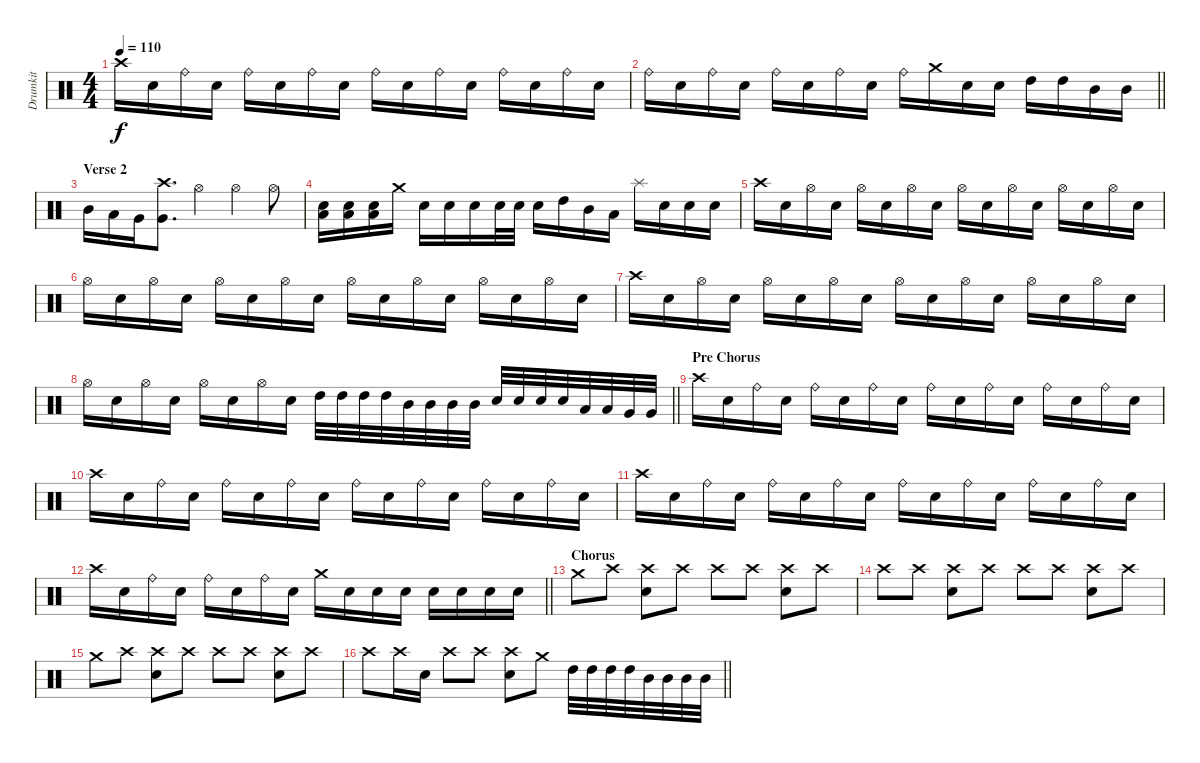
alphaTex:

\track ("Drumkit" "Drumkit") {instrument percussion}
\staff {score}
\articulation defaults
\ts (4 4)
\tempo 110
\clef neutral
\ks c "Crash high (hit)".16{dy f} "Electric Snare (hit)".16 "Ride (bell)".16 "Electric Snare (hit)".16 "Ride (bell)".16 "Electric Snare (hit)".16 "Ride (bell)".16 "Electric Snare (hit)".16 "Ride (bell)".16 "Electric Snare (hit)".16 "Ride (bell)".16 "Electric Snare (hit)".16 "Ride (bell)".16 "Electric Snare (hit)".16 "Ride (bell)".16 "Electric Snare (hit)".16
|
\barLineRight lightlight "Ride (bell)".16 "Electric Snare (hit)".16 "Ride (bell)".16 "Electric Snare (hit)".16 "Ride (bell)".16 "Electric Snare (hit)".16 "Ride (bell)".16 "Electric Snare (hit)".16 "Ride (bell)".16 "Crash medium (hit)".16 "Electric Snare (hit)".16 "Electric Snare (hit)".16 "High Tom (hit)".16 "High Tom (hit)".16 "Mid Tom (hit)".16 "Mid Tom (hit)".16
|
\section ("" "Verse 2")
"Mid Tom (hit)".16 "Low Tom (hit)".16 "Very Low Tom (hit)".16 ("Crash high (hit)" "Very Low Tom (hit)").8{d} "Hi-Hat (open)".4 "Hi-Hat (open)".4 "Hi-Hat (open)".8 |
("Low Floor Tom (hit)" "Electric Snare (hit)").16 ("Low Floor Tom (hit)" "Electric Snare (hit)").16 ("Low Floor Tom (hit)" "Electric Snare (hit)").16 "Crash medium (hit)".16 "Electric Snare (hit)".16 "Electric Snare (hit)".16 "Electric Snare (hit)".16 "Electric Snare (hit)".32 "Electric Snare (hit)".32 "Electric Snare (hit)".16 "High Tom (hit)".16 "Mid Tom (hit)".16 "Low Tom (hit)".16 "Splash (hit)".16 "Electric Snare (hit)".16 "Electric Snare (hit)".16 "Electric Snare (hit)".16 |
"Crash high (hit)".16 "Electric Snare (hit)".16 "Hi-Hat (open)".16 "Electric Snare (hit)".16 "Hi-Hat (open)".16 "Electric Snare (hit)".16 "Hi-Hat (open)".16 "Electric Snare (hit)".16 "Hi-Hat (open)".16 "Electric Snare (hit)".16 "Hi-Hat (open)".16 "Electric Snare (hit)".16 "Hi-Hat (open)".16 "Electric Snare (hit)".16 "Hi-Hat (open)".16 "Electric Snare (hit)".16 |
"Hi-Hat (open)".16 "Electric Snare (hit)".16 "Hi-Hat (open)".16 "Electric Snare (hit)".16 "Hi-Hat (open)".16 "Electric Snare (hit)".16 "Hi-Hat (open)".16 "Electric Snare (hit)".16 "Hi-Hat (open)".16 "Electric Snare (hit)".16 "Hi-Hat (open)".16 "Electric Snare (hit)".16 "Hi-Hat (open)".16 "Electric Snare (hit)".16 "Hi-Hat (open)".16 "Electric Snare (hit)".16 |
"Crash high (hit)".16 "Electric Snare (hit)".16 "Hi-Hat (open)".16 "Electric Snare (hit)".16 "Hi-Hat (open)".16 "Electric Snare (hit)".16 "Hi-Hat (open)".16 "Electric Snare (hit)".16 "Hi-Hat (open)".16 "Electric Snare (hit)".16 "Hi-Hat (open)".16 "Electric Snare (hit)".16 "Hi-Hat (open)".16 "Electric Snare (hit)".16 "Hi-Hat (open)".16 "Electric Snare (hit)".16 |
\barLineRight lightlight "Hi-Hat (open)".16 "Electric Snare (hit)".16 "Hi-Hat (open)".16 "Electric Snare (hit)".16 "Hi-Hat (open)".16 "Electric Snare (hit)".16 "Hi-Hat (open)".16 "Electric Snare (hit)".16 "High Tom (hit)".32 "High Tom (hit)".32 "High Tom (hit)".32 "High Tom (hit)".32 "Mid Tom (hit)".32 "Mid Tom (hit)".32 "Mid Tom (hit)".32 "Mid Tom (hit)".32 "Electric Snare (hit)".32 "Electric Snare (hit)".32 "Electric Snare (hit)".32 "Electric Snare (hit)".32 "Low Tom (hit)".32 "Low Tom (hit)".32 "Very Low Tom (hit)".32 "Very Low Tom (hit)".32
|
\section ("" "Pre Chorus")
"Crash high (hit)".16 "Electric Snare (hit)".16 "Ride (bell)".16 "Electric Snare (hit)".16 "Ride (bell)".16 "Electric Snare (hit)".16 "Ride (bell)".16 "Electric Snare (hit)".16 "Ride (bell)".16 "Electric Snare (hit)".16 "Ride (bell)".16 "Electric Snare (hit)".16 "Ride (bell)".16 "Electric Snare (hit)".16 "Ride (bell)".16 "Electric Snare (hit)".16 |
"Crash high (hit)".16 "Electric Snare (hit)".16 "Ride (bell)".16 "Electric Snare (hit)".16 "Ride (bell)".16 "Electric Snare (hit)".16 "Ride (bell)".16 "Electric Snare (hit)".16 "Ride (bell)".16 "Electric Snare (hit)".16 "Ride (bell)".16 "Electric Snare (hit)".16 "Ride (bell)".16 "Electric Snare (hit)".16 "Ride (bell)".16 "Electric Snare (hit)".16 |
"Crash high (hit)".16 "Electric Snare (hit)".16 "Ride (bell)".16 "Electric Snare (hit)".16 "Ride (bell)".16 "Electric Snare (hit)".16 "Ride (bell)".16 "Electric Snare (hit)".16 "Ride (bell)".16 "Electric Snare (hit)".16 "Ride (bell)".16 "Electric Snare (hit)".16 "Ride (bell)".16 "Electric Snare (hit)".16 "Ride (bell)".16 "Electric Snare (hit)".16 |
\barLineRight lightlight "Crash high (hit)".16 "Electric Snare (hit)".16 "Ride (bell)".16 "Electric Snare (hit)".16 "Ride (bell)".16 "Electric Snare (hit)".16 "Ride (bell)".16 "Electric Snare (hit)".16 "Crash medium (hit)".16 "Electric Snare (hit)".16 "Electric Snare (hit)".16 "Electric Snare (hit)".16 "Electric Snare (hit)".16 "Electric Snare (hit)".16 "Electric Snare (hit)".16 "Electric Snare (hit)".16
|
\section ("" "Chorus")
"Crash medium (hit)".8 "Crash high (hit)".8 ("Crash high (hit)" "Electric Snare (hit)").8 "Crash high (hit)".8 "Crash high (hit)".8 "Crash high (hit)".8 ("Crash high (hit)" "Electric Snare (hit)").8 "Crash high (hit)".8 |
"Crash high (hit)".8 "Crash high (hit)".8 ("Crash high (hit)" "Electric Snare (hit)").8 "Crash high (hit)".8 "Crash high (hit)".8 "Crash high (hit)".8 ("Crash high (hit)" "Electric Snare (hit)").8 "Crash high (hit)".8 |
"Crash medium (hit)".8 "Crash high (hit)".8 ("Crash high (hit)" "Electric Snare (hit)").8 "Crash high (hit)".8 "Crash high (hit)".8 "Crash high (hit)".8 ("Crash high (hit)" "Electric Snare (hit)").8 "Crash high (hit)".8 |
\barLineRight lightlight "Crash high (hit)".8 "Crash high (hit)".16 "Electric Snare (hit)".16 "Crash high (hit)".8 "Crash high (hit)".8
("Crash high (hit)" "Electric Snare (hit)").8 "Crash medium (hit)".8 "High Tom (hit)".32 "High Tom (hit)".32 "High Tom (hit)".32 "High Tom (hit)".32 "Mid Tom (hit)".32 "Mid Tom (hit)".32 "Mid Tom (hit)".32 "Mid Tom (hit)".32
